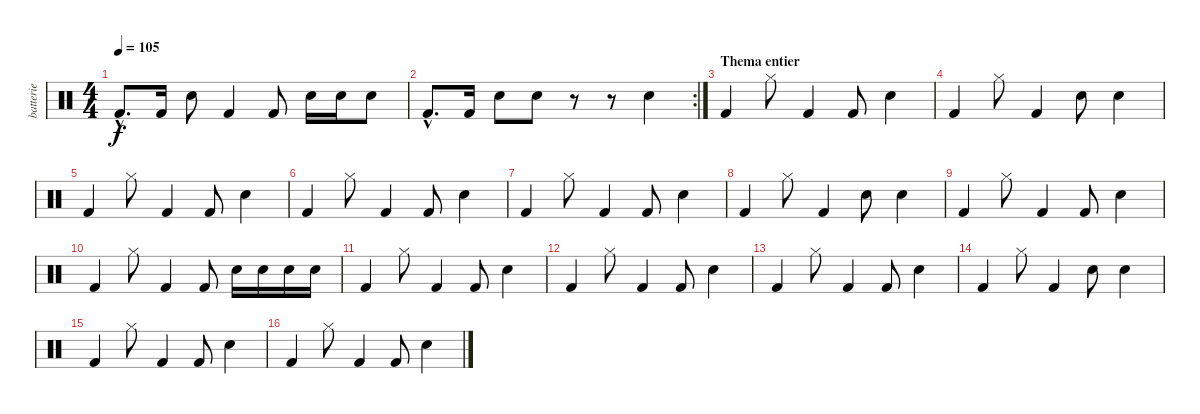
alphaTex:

\track ("batterie" "batterie") {instrument percussion}
\staff {score}
\articulation defaults
\ts (4 4)
\tempo 105
\clef neutral
\ks c "Kick (hit) 2"{hac}.8{d dy f} "Kick (hit) 2".16 "Electric Snare (hit)".8 "Kick (hit) 2".4 "Kick (hit) 2".8 "Electric Snare (hit)".16 "Electric Snare (hit)".16 "Electric Snare (hit)".8
|
\rc 2 "Kick (hit) 2"{hac}.8{d} "Kick (hit) 2".16 "Electric Snare (hit)".8 "Electric Snare (hit)".8
r.8 r.8 "Electric Snare (hit)".4 |
\section ("" "Thema entier")
"Kick (hit) 2".4 "Hi-Hat (closed)".8 "Kick (hit) 2".4 "Kick (hit) 2".8 "Electric Snare (hit)".4 |
"Kick (hit) 2".4 "Hi-Hat (closed)".8 "Kick (hit) 2".4 "Electric Snare (hit)".8 "Electric Snare (hit)".4 |
"Kick (hit) 2".4 "Hi-Hat (closed)".8 "Kick (hit) 2".4 "Kick (hit) 2".8 "Electric Snare (hit)".4 |
"Kick (hit) 2".4 "Hi-Hat (closed)".8 "Kick (hit) 2".4 "Kick (hit) 2".8 "Electric Snare (hit)".4 |
"Kick (hit) 2".4 "Hi-Hat (closed)".8 "Kick (hit) 2".4 "Kick (hit) 2".8 "Electric Snare (hit)".4 |
"Kick (hit) 2".4 "Hi-Hat (closed)".8 "Kick (hit) 2".4 "Electric Snare (hit)".8 "Electric Snare (hit)".4 |
"Kick (hit) 2".4 "Hi-Hat (closed)".8 "Kick (hit) 2".4 "Kick (hit) 2".8 "Electric Snare (hit)".4 |
"Kick (hit) 2".4 "Hi-Hat (closed)".8 "Kick (hit) 2".4 "Kick (hit) 2".8 "Electric Snare (hit)".16 "Electric Snare (hit)".16 "Electric Snare (hit)".16 "Electric Snare (hit)".16 |
"Kick (hit) 2".4 "Hi-Hat (closed)".8 "Kick (hit) 2".4 "Kick (hit) 2".8 "Electric Snare (hit)".4 |
"Kick (hit) 2".4 "Hi-Hat (closed)".8 "Kick (hit) 2".4 "Kick (hit) 2".8 "Electric Snare (hit)".4 |
"Kick (hit) 2".4 "Hi-Hat (closed)".8 "Kick (hit) 2".4 "Kick (hit) 2".8 "Electric Snare (hit)".4 |
"Kick (hit) 2".4 "Hi-Hat (closed)".8 "Kick (hit) 2".4 "Electric Snare (hit)".8 "Electric Snare (hit)".4 |
"Kick (hit) 2".4 "Hi-Hat (closed)".8 "Kick (hit) 2".4 "Kick (hit) 2".8 "Electric Snare (hit)".4 |
"Kick (hit) 2".4 "Hi-Hat (closed)".8 "Kick (hit) 2".4 "Kick (hit) 2".8 "Electric Snare (hit)".4
